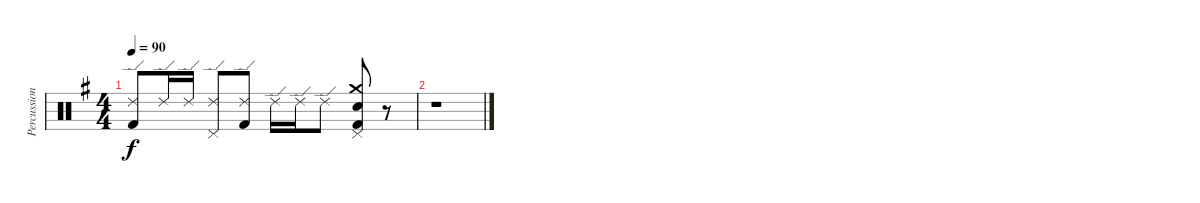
\track ("Percussion" "Percussion") {instrument percussion}
\staff {score}
\articulation defaults
\ts (4 4)
\tempo 90
\clef neutral
\ks eminor
("Ride (edge) 2" "Kick (hit) 2").8{dy f} "Ride (edge) 2".16 "Ride (edge) 2".16 ("Ride (edge) 2" "Pedal Hi-Hat (hit)").8 ("Ride (edge) 2" "Kick (hit) 2").8 "Ride (edge) 2".16 "Ride (edge) 2".16 "Ride (edge) 2".8 ("Crash medium (hit)" "Pedal Hi-Hat (hit)" "Snare (hit) 2" "Kick (hit) 2").8 r.8 |
r.1
